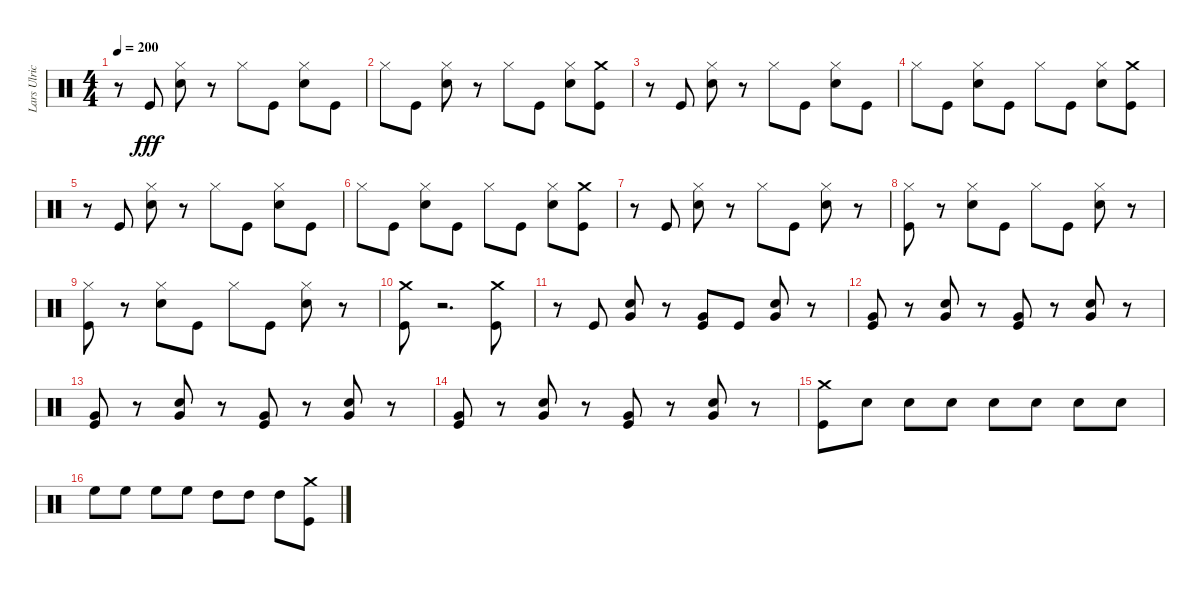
\track ("Lars Ulrich" "Lars Ulric") {instrument percussion}
\staff {score}
\articulation defaults
\ts (4 4)
\tempo 200
\clef neutral
\ks c
r.8{dy fff} "Kick (hit)".8 ("Hi-Hat (closed)" "Snare (hit) 2").8 r.8 "Hi-Hat (closed)".8 "Kick (hit)".8 ("Snare (hit) 2" "Hi-Hat (closed)").8 "Kick (hit)".8 |
"Hi-Hat (closed)".8 "Kick (hit)".8 ("Hi-Hat (closed)" "Snare (hit) 2").8 r.8 "Hi-Hat (closed)".8 "Kick (hit)".8 ("Hi-Hat (closed)" "Snare (hit) 2").8 ("Crash medium (hit)" "Kick (hit)").8 |
r.8 "Kick (hit)".8 ("Hi-Hat (closed)" "Snare (hit) 2").8 r.8 "Hi-Hat (closed)".8 "Kick (hit)".8 ("Hi-Hat (closed)" "Snare (hit) 2").8 "Kick (hit)".8 |
"Hi-Hat (closed)".8 "Kick (hit)".8 ("Hi-Hat (closed)" "Snare (hit) 2").8 "Kick (hit)".8 "Hi-Hat (closed)".8 "Kick (hit)".8 ("Hi-Hat (closed)" "Snare (hit) 2").8 ("Crash medium (hit)" "Kick (hit)").8 |
r.8 "Kick (hit)".8 ("Hi-Hat (closed)" "Snare (hit) 2").8 r.8 "Hi-Hat (closed)".8 "Kick (hit)".8 ("Snare (hit) 2" "Hi-Hat (closed)").8 "Kick (hit)".8 |
"Hi-Hat (closed)".8 "Kick (hit)".8 ("Hi-Hat (closed)" "Snare (hit) 2").8 "Kick (hit)".8 "Hi-Hat (closed)".8 "Kick (hit)".8 ("Hi-Hat (closed)" "Snare (hit) 2").8 ("Crash medium (hit)" "Kick (hit)").8 |
r.8 "Kick (hit)".8 ("Hi-Hat (closed)" "Snare (hit) 2").8 r.8 "Hi-Hat (closed)".8 "Kick (hit)".8 ("Hi-Hat (closed)" "Snare (hit) 2").8 r.8 |
("Hi-Hat (closed)" "Kick (hit)").8 r.8 ("Hi-Hat (closed)" "Snare (hit) 2").8 "Kick (hit)".8 "Hi-Hat (closed)".8 "Kick (hit)".8 ("Hi-Hat (closed)" "Snare (hit) 2").8 r.8 |
("Hi-Hat (closed)" "Kick (hit)").8 r.8 ("Hi-Hat (closed)" "Snare (hit) 2").8 "Kick (hit)".8 "Hi-Hat (closed)".8 "Kick (hit)".8 ("Hi-Hat (closed)" "Snare (hit) 2").8 r.8 |
("Crash medium (hit)" "Kick (hit)").8 r.2{d} ("Crash medium (hit)" "Kick (hit)").8 |
r.8 "Kick (hit)".8 ("Snare (hit) 2" "Very Low Tom (hit)").8 r.8 ("Very Low Tom (hit)" "Kick (hit)").8 "Kick (hit)".8 ("Very Low Tom (hit)" "Snare (hit) 2").8 r.8 |
("Very Low Tom (hit)" "Kick (hit)").8 r.8 ("Snare (hit) 2" "Very Low Tom (hit)").8 r.8 ("Very Low Tom (hit)" "Kick (hit)").8 r.8 ("Very Low Tom (hit)" "Snare (hit) 2").8 r.8 |
("Very Low Tom (hit)" "Kick (hit)").8 r.8 ("Snare (hit) 2" "Very Low Tom (hit)").8 r.8 ("Very Low Tom (hit)" "Kick (hit)").8 r.8 ("Very Low Tom (hit)" "Snare (hit) 2").8 r.8 |
("Very Low Tom (hit)" "Kick (hit)").8 r.8 ("Snare (hit) 2" "Very Low Tom (hit)").8 r.8 ("Very Low Tom (hit)" "Kick (hit)").8 r.8 ("Very Low Tom (hit)" "Snare (hit) 2").8 r.8 |
("Crash medium (hit)" "Kick (hit)").8 "Snare (hit) 2".8 "Snare (hit) 2".8 "Snare (hit) 2".8 "Snare (hit) 2".8 "Snare (hit) 2".8 "Snare (hit) 2".8 "Snare (hit) 2".8 |
"High Floor Tom (hit)".8 "High Floor Tom (hit)".8 "High Floor Tom (hit)".8 "High Floor Tom (hit)".8 "High Tom (hit)".8 "High Tom (hit)".8 "High Tom (hit)".8 ("Crash medium (hit)" "Kick (hit)").8
